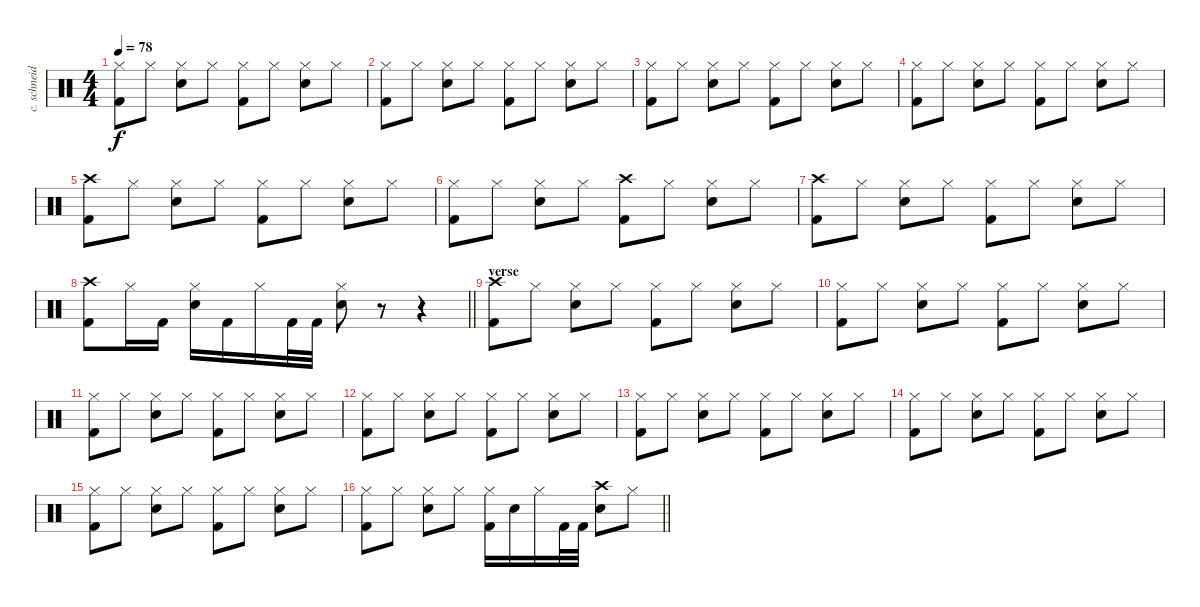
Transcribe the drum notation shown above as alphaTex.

\track ("c. schneider - drums" "c. schneid") {instrument percussion}
\staff {score}
\articulation defaults
\ts (4 4)
\tempo 78
\clef neutral
\ks c
("Hi-Hat (closed)" "Kick (hit) 2").8{dy f} "Hi-Hat (closed)".8 ("Hi-Hat (closed)" "Snare (hit) 2").8 "Hi-Hat (closed)".8 ("Hi-Hat (closed)" "Kick (hit) 2").8 "Hi-Hat (closed)".8 ("Hi-Hat (closed)" "Snare (hit) 2").8 "Hi-Hat (closed)".8 |
("Hi-Hat (closed)" "Kick (hit) 2").8 "Hi-Hat (closed)".8 ("Hi-Hat (closed)" "Snare (hit) 2").8 "Hi-Hat (closed)".8 ("Hi-Hat (closed)" "Kick (hit) 2").8 "Hi-Hat (closed)".8 ("Hi-Hat (closed)" "Snare (hit) 2").8 "Hi-Hat (closed)".8 |
("Hi-Hat (closed)" "Kick (hit) 2").8 "Hi-Hat (closed)".8 ("Hi-Hat (closed)" "Snare (hit) 2").8 "Hi-Hat (closed)".8 ("Hi-Hat (closed)" "Kick (hit) 2").8 "Hi-Hat (closed)".8 ("Hi-Hat (closed)" "Snare (hit) 2").8 "Hi-Hat (closed)".8 |
("Hi-Hat (closed)" "Kick (hit) 2").8 "Hi-Hat (closed)".8 ("Hi-Hat (closed)" "Snare (hit) 2").8 "Hi-Hat (closed)".8 ("Hi-Hat (closed)" "Kick (hit) 2").8 "Hi-Hat (closed)".8 ("Hi-Hat (closed)" "Snare (hit) 2").8 "Hi-Hat (closed)".8 |
("Crash high (hit)" "Kick (hit) 2").8 "Hi-Hat (closed)".8 ("Hi-Hat (closed)" "Snare (hit) 2").8 "Hi-Hat (closed)".8 ("Hi-Hat (closed)" "Kick (hit) 2").8 "Hi-Hat (closed)".8 ("Hi-Hat (closed)" "Snare (hit) 2").8 "Hi-Hat (closed)".8 |
("Hi-Hat (closed)" "Kick (hit) 2").8 "Hi-Hat (closed)".8 ("Hi-Hat (closed)" "Snare (hit) 2").8 "Hi-Hat (closed)".8 ("Crash high (hit)" "Kick (hit) 2").8 "Hi-Hat (closed)".8 ("Hi-Hat (closed)" "Snare (hit) 2").8 "Hi-Hat (closed)".8 |
("Crash high (hit)" "Kick (hit) 2").8 "Hi-Hat (closed)".8 ("Hi-Hat (closed)" "Snare (hit) 2").8 "Hi-Hat (closed)".8 ("Hi-Hat (closed)" "Kick (hit) 2").8 "Hi-Hat (closed)".8 ("Hi-Hat (closed)" "Snare (hit) 2").8 "Hi-Hat (closed)".8 |
\barLineRight lightlight
("Crash high (hit)" "Kick (hit) 2").8 "Hi-Hat (closed)".16 "Kick (hit) 2".16 ("Hi-Hat (closed)" "Snare (hit) 2").16 "Kick (hit) 2".16 "Hi-Hat (closed)".16 "Kick (hit) 2".32 "Kick (hit) 2".32 ("Hi-Hat (closed)" "Snare (hit) 2").8 r.8 r.4 |
\section ("" "verse")
("Crash high (hit)" "Kick (hit) 2").8 "Hi-Hat (closed)".8 ("Hi-Hat (closed)" "Snare (hit) 2").8 "Hi-Hat (closed)".8 ("Hi-Hat (closed)" "Kick (hit) 2").8 "Hi-Hat (closed)".8 ("Hi-Hat (closed)" "Snare (hit) 2").8 "Hi-Hat (closed)".8 |
("Hi-Hat (closed)" "Kick (hit) 2").8 "Hi-Hat (closed)".8 ("Hi-Hat (closed)" "Snare (hit) 2").8 "Hi-Hat (closed)".8 ("Hi-Hat (closed)" "Kick (hit) 2").8 "Hi-Hat (closed)".8 ("Hi-Hat (closed)" "Snare (hit) 2").8 "Hi-Hat (closed)".8 |
("Hi-Hat (closed)" "Kick (hit) 2").8 "Hi-Hat (closed)".8 ("Hi-Hat (closed)" "Snare (hit) 2").8 "Hi-Hat (closed)".8 ("Hi-Hat (closed)" "Kick (hit) 2").8 "Hi-Hat (closed)".8 ("Hi-Hat (closed)" "Snare (hit) 2").8 "Hi-Hat (closed)".8 |
("Hi-Hat (closed)" "Kick (hit) 2").8 "Hi-Hat (closed)".8 ("Hi-Hat (closed)" "Snare (hit) 2").8 "Hi-Hat (closed)".8 ("Hi-Hat (closed)" "Kick (hit) 2").8 "Hi-Hat (closed)".8 ("Hi-Hat (closed)" "Snare (hit) 2").8 "Hi-Hat (closed)".8 |
("Hi-Hat (closed)" "Kick (hit) 2").8 "Hi-Hat (closed)".8 ("Hi-Hat (closed)" "Snare (hit) 2").8 "Hi-Hat (closed)".8 ("Hi-Hat (closed)" "Kick (hit) 2").8 "Hi-Hat (closed)".8 ("Hi-Hat (closed)" "Snare (hit) 2").8 "Hi-Hat (closed)".8 |
("Hi-Hat (closed)" "Kick (hit) 2").8 "Hi-Hat (closed)".8 ("Hi-Hat (closed)" "Snare (hit) 2").8 "Hi-Hat (closed)".8 ("Hi-Hat (closed)" "Kick (hit) 2").8 "Hi-Hat (closed)".8 ("Hi-Hat (closed)" "Snare (hit) 2").8 "Hi-Hat (closed)".8 |
("Hi-Hat (closed)" "Kick (hit) 2").8 "Hi-Hat (closed)".8 ("Hi-Hat (closed)" "Snare (hit) 2").8 "Hi-Hat (closed)".8 ("Hi-Hat (closed)" "Kick (hit) 2").8 "Hi-Hat (closed)".8 ("Hi-Hat (closed)" "Snare (hit) 2").8 "Hi-Hat (closed)".8 |
\barLineRight lightlight
("Hi-Hat (closed)" "Kick (hit) 2").8 "Hi-Hat (closed)".8 ("Hi-Hat (closed)" "Snare (hit) 2").8 "Hi-Hat (closed)".8 ("Hi-Hat (closed)" "Kick (hit) 2").16 "Snare (hit) 2".16 "Hi-Hat (closed)".16 "Kick (hit) 2".32 "Kick (hit) 2".32 ("Crash high (hit)" "Snare (hit) 2").8 "Hi-Hat (closed)".8
